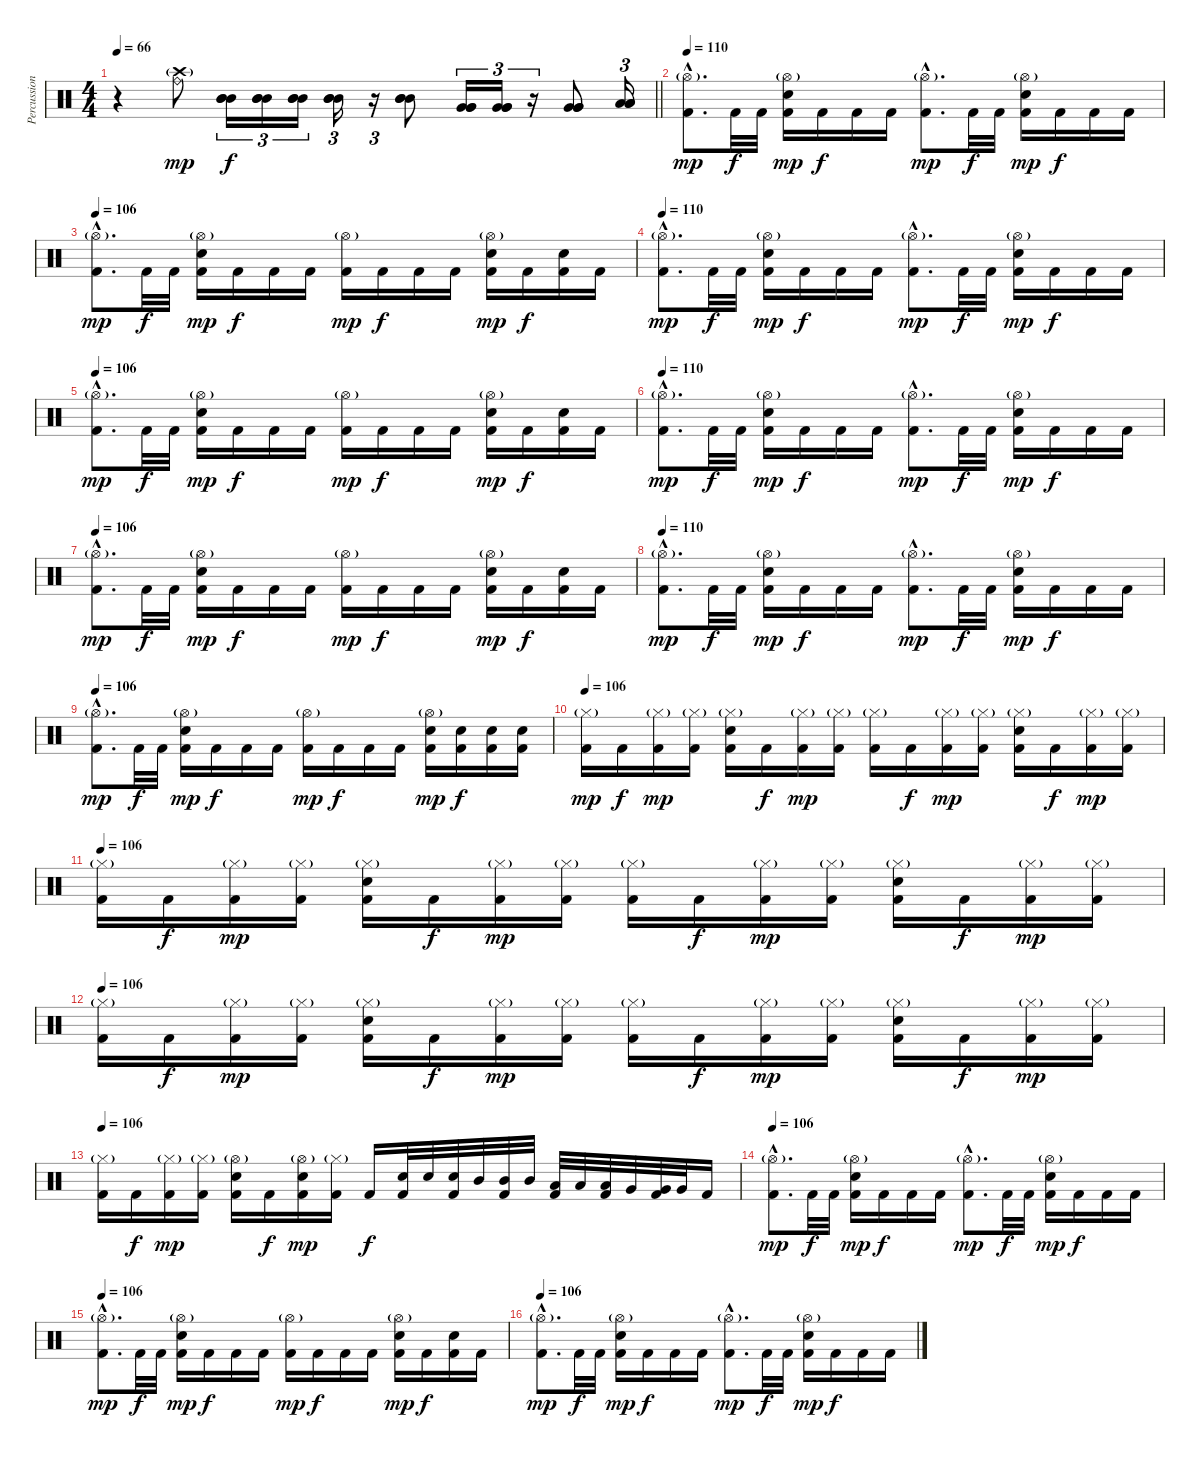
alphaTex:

\track ("Percussions" "Percussion") {instrument percussion}
\staff {score}
\articulation defaults
\ts (4 4)
\tempo 66
\clef neutral
\barLineRight lightlight
\ks c
r.4{dy f} ("Ride (bell)" "Crash high (hit)"{g}).8{dy mp} ("Mid Tom (hit)" "Mid Tom (hit)" "Mid Tom (hit)").16{tu (3 2) dy f} ("Mid Tom (hit)" "Mid Tom (hit)" "Mid Tom (hit)").16{tu (3 2)} ("Mid Tom (hit)" "Mid Tom (hit)" "Mid Tom (hit)").16{tu (3 2)} ("Mid Tom (hit)" "Mid Tom (hit)" "Mid Tom (hit)").16{tu (3 2)} r.16{tu (3 2)} ("Mid Tom (hit)" "Mid Tom (hit)" "Mid Tom (hit)").8 ("Very Low Tom (hit)" "Very Low Tom (hit)" "Very Low Tom (hit)").16{tu (3 2)} ("Very Low Tom (hit)" "Very Low Tom (hit)" "Very Low Tom (hit)").16{tu (3 2)} r.16{tu (3 2)} ("Very Low Tom (hit)" "Very Low Tom (hit)" "Very Low Tom (hit)").8 ("Low Floor Tom (hit)" "Low Floor Tom (hit)" "Low Floor Tom (hit)").16{tu (3 2)} |
\tempo 106
\tempo 110
("Hi-Hat (open)"{g hac} "Kick (hit) 2"{hac}).8{d dy mp} "Kick (hit) 2".32{dy f} "Kick (hit) 2".32 ("Hi-Hat (open)"{g} "Electric Snare (hit)" "Kick (hit) 2").16{dy mp} "Kick (hit) 2".16{dy f} "Kick (hit) 2".16 "Kick (hit) 2".16 ("Hi-Hat (open)"{g hac} "Kick (hit) 2"{hac}).8{d dy mp} "Kick (hit) 2".32{dy f} "Kick (hit) 2".32 ("Hi-Hat (open)"{g} "Electric Snare (hit)" "Kick (hit) 2").16{dy mp} "Kick (hit) 2".16{dy f} "Kick (hit) 2".16 "Kick (hit) 2".16 |
\tempo 106
("Hi-Hat (open)"{g hac} "Kick (hit) 2"{hac}).8{d dy mp} "Kick (hit) 2".32{dy f} "Kick (hit) 2".32 ("Hi-Hat (open)"{g} "Electric Snare (hit)" "Kick (hit) 2").16{dy mp} "Kick (hit) 2".16{dy f} "Kick (hit) 2".16 "Kick (hit) 2".16 ("Hi-Hat (open)"{g} "Kick (hit) 2").16{dy mp} "Kick (hit) 2".16{dy f} "Kick (hit) 2".16 "Kick (hit) 2".16 ("Hi-Hat (open)"{g} "Electric Snare (hit)" "Kick (hit) 2").16{dy mp} "Kick (hit) 2".16{dy f} ("Electric Snare (hit)" "Kick (hit) 2").16 "Kick (hit) 2".16 |
\tempo 106
\tempo 110
("Hi-Hat (open)"{g hac} "Kick (hit) 2"{hac}).8{d dy mp} "Kick (hit) 2".32{dy f} "Kick (hit) 2".32 ("Hi-Hat (open)"{g} "Electric Snare (hit)" "Kick (hit) 2").16{dy mp} "Kick (hit) 2".16{dy f} "Kick (hit) 2".16 "Kick (hit) 2".16 ("Hi-Hat (open)"{g hac} "Kick (hit) 2"{hac}).8{d dy mp} "Kick (hit) 2".32{dy f} "Kick (hit) 2".32 ("Hi-Hat (open)"{g} "Electric Snare (hit)" "Kick (hit) 2").16{dy mp} "Kick (hit) 2".16{dy f} "Kick (hit) 2".16 "Kick (hit) 2".16 |
\tempo 106
("Hi-Hat (open)"{g hac} "Kick (hit) 2"{hac}).8{d dy mp} "Kick (hit) 2".32{dy f} "Kick (hit) 2".32 ("Hi-Hat (open)"{g} "Electric Snare (hit)" "Kick (hit) 2").16{dy mp} "Kick (hit) 2".16{dy f} "Kick (hit) 2".16 "Kick (hit) 2".16 ("Hi-Hat (open)"{g} "Kick (hit) 2").16{dy mp} "Kick (hit) 2".16{dy f} "Kick (hit) 2".16 "Kick (hit) 2".16 ("Hi-Hat (open)"{g} "Electric Snare (hit)" "Kick (hit) 2").16{dy mp} "Kick (hit) 2".16{dy f} ("Electric Snare (hit)" "Kick (hit) 2").16 "Kick (hit) 2".16 |
\tempo 106
\tempo 110
("Hi-Hat (open)"{g hac} "Kick (hit) 2"{hac}).8{d dy mp} "Kick (hit) 2".32{dy f} "Kick (hit) 2".32 ("Hi-Hat (open)"{g} "Electric Snare (hit)" "Kick (hit) 2").16{dy mp} "Kick (hit) 2".16{dy f} "Kick (hit) 2".16 "Kick (hit) 2".16 ("Hi-Hat (open)"{g hac} "Kick (hit) 2"{hac}).8{d dy mp} "Kick (hit) 2".32{dy f} "Kick (hit) 2".32 ("Hi-Hat (open)"{g} "Electric Snare (hit)" "Kick (hit) 2").16{dy mp} "Kick (hit) 2".16{dy f} "Kick (hit) 2".16 "Kick (hit) 2".16 |
\tempo 106
("Hi-Hat (open)"{g hac} "Kick (hit) 2"{hac}).8{d dy mp} "Kick (hit) 2".32{dy f} "Kick (hit) 2".32 ("Hi-Hat (open)"{g} "Electric Snare (hit)" "Kick (hit) 2").16{dy mp} "Kick (hit) 2".16{dy f} "Kick (hit) 2".16 "Kick (hit) 2".16 ("Hi-Hat (open)"{g} "Kick (hit) 2").16{dy mp} "Kick (hit) 2".16{dy f} "Kick (hit) 2".16 "Kick (hit) 2".16 ("Hi-Hat (open)"{g} "Electric Snare (hit)" "Kick (hit) 2").16{dy mp} "Kick (hit) 2".16{dy f} ("Electric Snare (hit)" "Kick (hit) 2").16 "Kick (hit) 2".16 |
\tempo 106
\tempo 110
("Hi-Hat (open)"{g hac} "Kick (hit) 2"{hac}).8{d dy mp} "Kick (hit) 2".32{dy f} "Kick (hit) 2".32 ("Hi-Hat (open)"{g} "Electric Snare (hit)" "Kick (hit) 2").16{dy mp} "Kick (hit) 2".16{dy f} "Kick (hit) 2".16 "Kick (hit) 2".16 ("Hi-Hat (open)"{g hac} "Kick (hit) 2"{hac}).8{d dy mp} "Kick (hit) 2".32{dy f} "Kick (hit) 2".32 ("Hi-Hat (open)"{g} "Electric Snare (hit)" "Kick (hit) 2").16{dy mp} "Kick (hit) 2".16{dy f} "Kick (hit) 2".16 "Kick (hit) 2".16 |
\tempo 106
("Hi-Hat (open)"{g hac} "Kick (hit) 2"{hac}).8{d dy mp} "Kick (hit) 2".32{dy f} "Kick (hit) 2".32 ("Hi-Hat (open)"{g} "Electric Snare (hit)" "Kick (hit) 2").16{dy mp} "Kick (hit) 2".16{dy f} "Kick (hit) 2".16 "Kick (hit) 2".16 ("Hi-Hat (open)"{g} "Kick (hit) 2").16{dy mp} "Kick (hit) 2".16{dy f} "Kick (hit) 2".16 "Kick (hit) 2".16 ("Hi-Hat (open)"{g} "Electric Snare (hit)" "Kick (hit) 2").16{dy mp} ("Electric Snare (hit)" "Kick (hit) 2").16{dy f} ("Electric Snare (hit)" "Kick (hit) 2").16 ("Electric Snare (hit)" "Kick (hit) 2").16 |
\tempo 106
("Hi-Hat (closed)"{g} "Kick (hit) 2").16{dy mp} "Kick (hit) 2".16{dy f} ("Hi-Hat (closed)"{g} "Kick (hit) 2").16{dy mp} ("Hi-Hat (closed)"{g} "Kick (hit) 2").16 ("Hi-Hat (closed)"{g} "Electric Snare (hit)" "Kick (hit) 2").16 "Kick (hit) 2".16{dy f} ("Hi-Hat (closed)"{g} "Kick (hit) 2").16{dy mp} ("Hi-Hat (closed)"{g} "Kick (hit) 2").16 ("Hi-Hat (closed)"{g} "Kick (hit) 2").16 "Kick (hit) 2".16{dy f} ("Hi-Hat (closed)"{g} "Kick (hit) 2").16{dy mp} ("Hi-Hat (closed)"{g} "Kick (hit) 2").16 ("Hi-Hat (closed)"{g} "Electric Snare (hit)" "Kick (hit) 2").16 "Kick (hit) 2".16{dy f} ("Hi-Hat (closed)"{g} "Kick (hit) 2").16{dy mp} ("Hi-Hat (closed)"{g} "Kick (hit) 2").16 |
\tempo 106
("Hi-Hat (closed)"{g} "Kick (hit) 2").16 "Kick (hit) 2".16{dy f} ("Hi-Hat (closed)"{g} "Kick (hit) 2").16{dy mp} ("Hi-Hat (closed)"{g} "Kick (hit) 2").16 ("Hi-Hat (closed)"{g} "Electric Snare (hit)" "Kick (hit) 2").16 "Kick (hit) 2".16{dy f} ("Hi-Hat (closed)"{g} "Kick (hit) 2").16{dy mp} ("Hi-Hat (closed)"{g} "Kick (hit) 2").16 ("Hi-Hat (closed)"{g} "Kick (hit) 2").16 "Kick (hit) 2".16{dy f} ("Hi-Hat (closed)"{g} "Kick (hit) 2").16{dy mp} ("Hi-Hat (closed)"{g} "Kick (hit) 2").16 ("Hi-Hat (closed)"{g} "Electric Snare (hit)" "Kick (hit) 2").16 "Kick (hit) 2".16{dy f} ("Hi-Hat (closed)"{g} "Kick (hit) 2").16{dy mp} ("Hi-Hat (closed)"{g} "Kick (hit) 2").16 |
\tempo 106
("Hi-Hat (closed)"{g} "Kick (hit) 2").16 "Kick (hit) 2".16{dy f} ("Hi-Hat (closed)"{g} "Kick (hit) 2").16{dy mp} ("Hi-Hat (closed)"{g} "Kick (hit) 2").16 ("Hi-Hat (closed)"{g} "Electric Snare (hit)" "Kick (hit) 2").16 "Kick (hit) 2".16{dy f} ("Hi-Hat (closed)"{g} "Kick (hit) 2").16{dy mp} ("Hi-Hat (closed)"{g} "Kick (hit) 2").16 ("Hi-Hat (closed)"{g} "Kick (hit) 2").16 "Kick (hit) 2".16{dy f} ("Hi-Hat (closed)"{g} "Kick (hit) 2").16{dy mp} ("Hi-Hat (closed)"{g} "Kick (hit) 2").16 ("Hi-Hat (closed)"{g} "Electric Snare (hit)" "Kick (hit) 2").16 "Kick (hit) 2".16{dy f} ("Hi-Hat (closed)"{g} "Kick (hit) 2").16{dy mp} ("Hi-Hat (closed)"{g} "Kick (hit) 2").16 |
\tempo 106
("Hi-Hat (closed)"{g} "Kick (hit) 2").16 "Kick (hit) 2".16{dy f} ("Hi-Hat (closed)"{g} "Kick (hit) 2").16{dy mp} ("Hi-Hat (closed)"{g} "Kick (hit) 2").16 ("Hi-Hat (open)"{g} "Electric Snare (hit)" "Kick (hit) 2").16 "Kick (hit) 2".16{dy f} ("Hi-Hat (open)"{g} "Electric Snare (hit)" "Kick (hit) 2").16{dy mp} ("Hi-Hat (closed)"{g} "Kick (hit) 2").16 "Kick (hit) 2".16{dy f} ("Electric Snare (hit)" "Kick (hit) 2").32 "Electric Snare (hit)".32 ("Electric Snare (hit)" "Kick (hit) 2").32 "Mid Tom (hit)".32 ("Mid Tom (hit)" "Kick (hit) 2").32 "Mid Tom (hit)".32 ("Low Tom (hit)" "Kick (hit) 2").32 "Low Tom (hit)".32 ("Low Tom (hit)" "Kick (hit) 2").32 "Very Low Tom (hit)".32 ("Very Low Tom (hit)" "Kick (hit) 2").32 "Very Low Tom (hit)".32 "Kick (hit) 2".16 |
\tempo 106
("Hi-Hat (open)"{g hac} "Kick (hit) 2"{hac}).8{d dy mp} "Kick (hit) 2".32{dy f} "Kick (hit) 2".32 ("Hi-Hat (open)"{g} "Electric Snare (hit)" "Kick (hit) 2").16{dy mp} "Kick (hit) 2".16{dy f} "Kick (hit) 2".16 "Kick (hit) 2".16 ("Hi-Hat (open)"{g hac} "Kick (hit) 2"{hac}).8{d dy mp} "Kick (hit) 2".32{dy f} "Kick (hit) 2".32 ("Hi-Hat (open)"{g} "Electric Snare (hit)" "Kick (hit) 2").16{dy mp} "Kick (hit) 2".16{dy f} "Kick (hit) 2".16 "Kick (hit) 2".16 |
\tempo 106
("Hi-Hat (open)"{g hac} "Kick (hit) 2"{hac}).8{d dy mp} "Kick (hit) 2".32{dy f} "Kick (hit) 2".32 ("Hi-Hat (open)"{g} "Electric Snare (hit)" "Kick (hit) 2").16{dy mp} "Kick (hit) 2".16{dy f} "Kick (hit) 2".16 "Kick (hit) 2".16 ("Hi-Hat (open)"{g} "Kick (hit) 2").16{dy mp} "Kick (hit) 2".16{dy f} "Kick (hit) 2".16 "Kick (hit) 2".16 ("Hi-Hat (open)"{g} "Electric Snare (hit)" "Kick (hit) 2").16{dy mp} "Kick (hit) 2".16{dy f} ("Electric Snare (hit)" "Kick (hit) 2").16 "Kick (hit) 2".16 |
\tempo 106
("Hi-Hat (open)"{g hac} "Kick (hit) 2"{hac}).8{d dy mp} "Kick (hit) 2".32{dy f} "Kick (hit) 2".32 ("Hi-Hat (open)"{g} "Electric Snare (hit)" "Kick (hit) 2").16{dy mp} "Kick (hit) 2".16{dy f} "Kick (hit) 2".16 "Kick (hit) 2".16 ("Hi-Hat (open)"{g hac} "Kick (hit) 2"{hac}).8{d dy mp} "Kick (hit) 2".32{dy f} "Kick (hit) 2".32 ("Hi-Hat (open)"{g} "Electric Snare (hit)" "Kick (hit) 2").16{dy mp} "Kick (hit) 2".16{dy f} "Kick (hit) 2".16 "Kick (hit) 2".16
